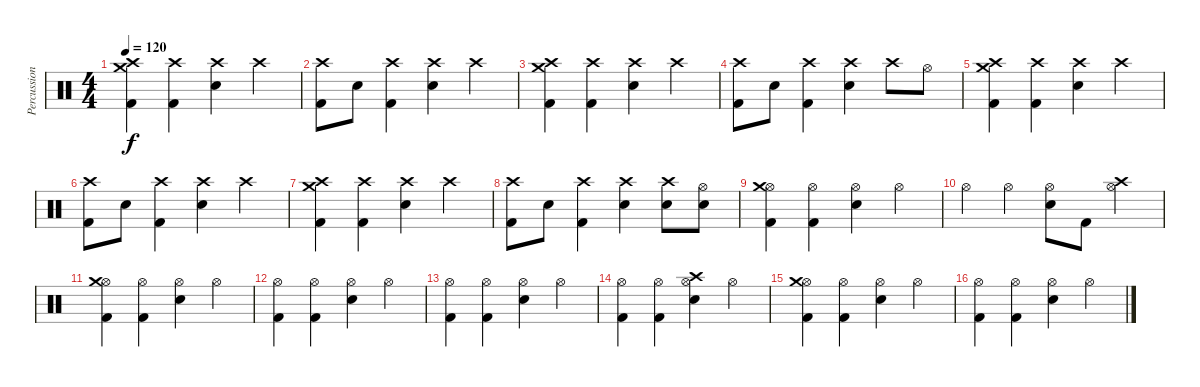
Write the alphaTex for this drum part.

\track ("Percussioni" "Percussion") {instrument percussion}
\staff {score}
\articulation defaults
\ts (4 4)
\tempo 120
\clef neutral
\ks c
("Crash high (hit)" "Kick (hit) 2" "Crash medium (hit)").4{dy f} ("Crash high (hit)" "Kick (hit) 2").4 ("Crash high (hit)" "Snare (hit) 2").4 "Crash high (hit)".4 |
("Crash high (hit)" "Kick (hit) 2").8 "Snare (hit) 2".8 ("Crash high (hit)" "Kick (hit) 2").4 ("Crash high (hit)" "Snare (hit) 2").4 "Crash high (hit)".4 |
("Crash high (hit)" "Kick (hit) 2" "Crash medium (hit)").4 ("Crash high (hit)" "Kick (hit) 2").4 ("Crash high (hit)" "Snare (hit) 2").4 "Crash high (hit)".4 |
("Crash high (hit)" "Kick (hit) 2").8 "Snare (hit) 2".8 ("Crash high (hit)" "Kick (hit) 2").4 ("Crash high (hit)" "Snare (hit) 2").4 "Crash high (hit)".8 "Hi-Hat (open)".8 |
("Crash high (hit)" "Kick (hit) 2" "Crash medium (hit)").4 ("Crash high (hit)" "Kick (hit) 2").4 ("Crash high (hit)" "Snare (hit) 2").4 "Crash high (hit)".4 |
("Crash high (hit)" "Kick (hit) 2").8 "Snare (hit) 2".8 ("Crash high (hit)" "Kick (hit) 2").4 ("Crash high (hit)" "Snare (hit) 2").4 "Crash high (hit)".4 |
("Crash high (hit)" "Kick (hit) 2" "Crash medium (hit)").4 ("Crash high (hit)" "Kick (hit) 2").4 ("Crash high (hit)" "Snare (hit) 2").4 "Crash high (hit)".4 |
("Crash high (hit)" "Kick (hit) 2").8 "Snare (hit) 2".8 ("Crash high (hit)" "Kick (hit) 2").4 ("Crash high (hit)" "Snare (hit) 2").4 ("Crash high (hit)" "Snare (hit) 2").8 ("Snare (hit) 2" "Hi-Hat (open)").8 |
("Hi-Hat (open)" "Crash medium (hit)" "Kick (hit) 2").4 ("Hi-Hat (open)" "Kick (hit) 2").4 ("Hi-Hat (open)" "Snare (hit) 2").4 "Hi-Hat (open)".4 |
"Hi-Hat (open)".4 "Hi-Hat (open)".4 ("Hi-Hat (open)" "Snare (hit) 2").8 "Kick (hit) 2".8 ("Hi-Hat (open)" "Crash high (hit)").4 |
("Hi-Hat (open)" "Crash medium (hit)" "Kick (hit) 2").4 ("Hi-Hat (open)" "Kick (hit) 2").4 ("Hi-Hat (open)" "Snare (hit) 2").4 "Hi-Hat (open)".4 |
("Hi-Hat (open)" "Kick (hit) 2").4 ("Hi-Hat (open)" "Kick (hit) 2").4 ("Hi-Hat (open)" "Snare (hit) 2").4 "Hi-Hat (open)".4 |
("Hi-Hat (open)" "Kick (hit) 2").4 ("Hi-Hat (open)" "Kick (hit) 2").4 ("Hi-Hat (open)" "Snare (hit) 2").4 "Hi-Hat (open)".4 |
("Hi-Hat (open)" "Kick (hit) 2").4 ("Hi-Hat (open)" "Kick (hit) 2").4 ("Hi-Hat (open)" "Crash high (hit)" "Snare (hit) 2").4 "Hi-Hat (open)".4 |
("Hi-Hat (open)" "Crash medium (hit)" "Kick (hit) 2").4 ("Hi-Hat (open)" "Kick (hit) 2").4 ("Hi-Hat (open)" "Snare (hit) 2").4 "Hi-Hat (open)".4 |
("Hi-Hat (open)" "Kick (hit) 2").4 ("Hi-Hat (open)" "Kick (hit) 2").4 ("Hi-Hat (open)" "Snare (hit) 2").4 "Hi-Hat (open)".4
